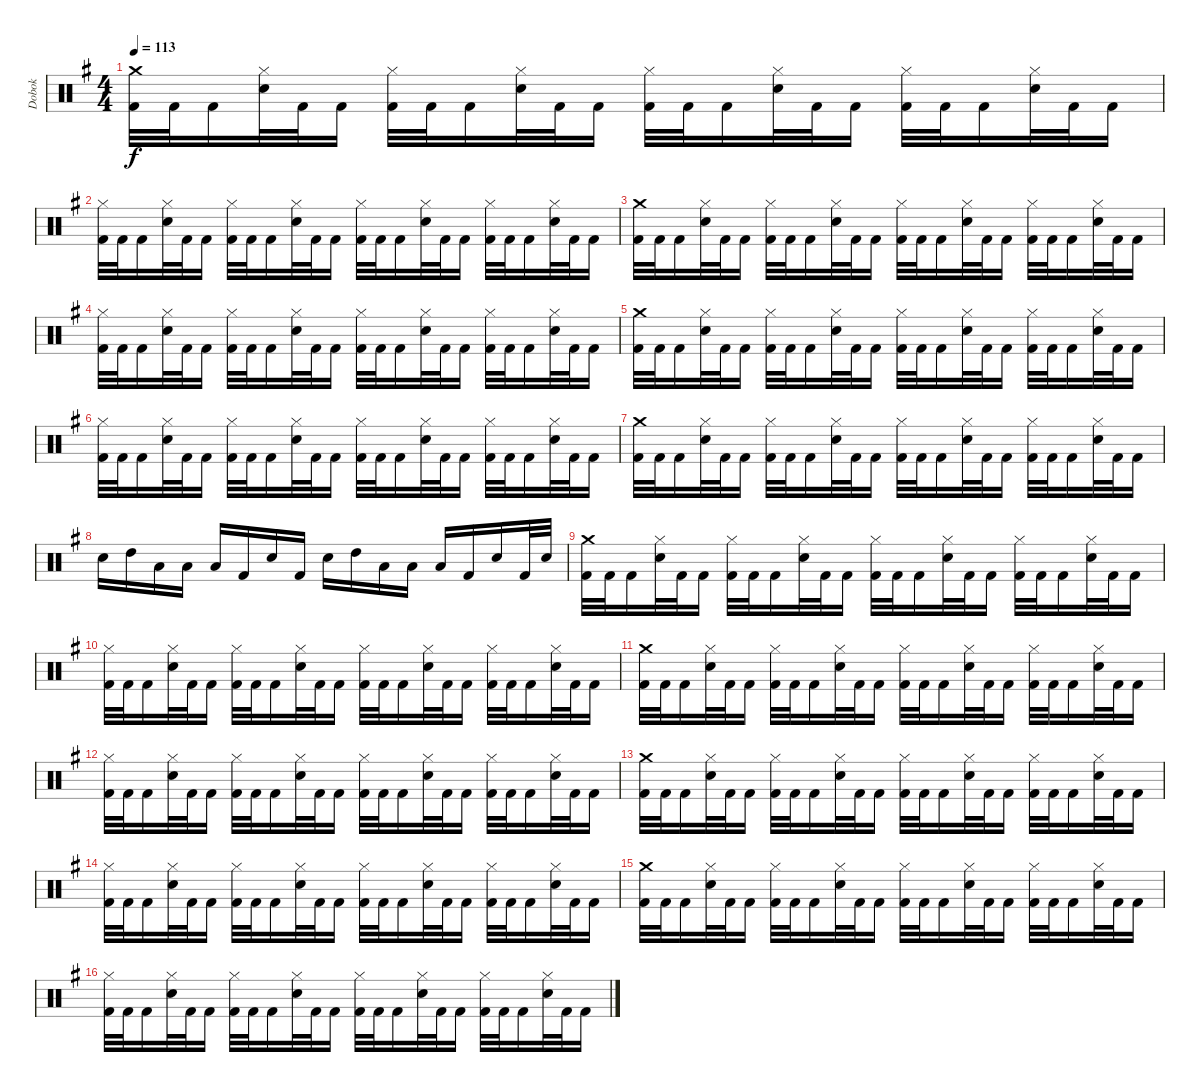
\track ("Dobok" "Dobok") {instrument percussion}
\staff {score}
\articulation defaults
\ts (4 4)
\tempo 113
\clef neutral
\ks g
("Crash medium (hit)" "Kick (hit) 2").32{dy f} "Kick (hit) 2".32 "Kick (hit) 2".16 ("Hi-Hat (closed)" "Snare (hit) 2").32 "Kick (hit) 2".32 "Kick (hit) 2".16 ("Hi-Hat (closed)" "Kick (hit) 2").32 "Kick (hit) 2".32 "Kick (hit) 2".16 ("Hi-Hat (closed)" "Snare (hit) 2").32 "Kick (hit) 2".32 "Kick (hit) 2".16 ("Hi-Hat (closed)" "Kick (hit) 2").32 "Kick (hit) 2".32 "Kick (hit) 2".16 ("Hi-Hat (closed)" "Snare (hit) 2").32 "Kick (hit) 2".32 "Kick (hit) 2".16 ("Hi-Hat (closed)" "Kick (hit) 2").32 "Kick (hit) 2".32 "Kick (hit) 2".16 ("Hi-Hat (closed)" "Snare (hit) 2").32 "Kick (hit) 2".32 "Kick (hit) 2".16 |
("Hi-Hat (closed)" "Kick (hit) 2").32 "Kick (hit) 2".32 "Kick (hit) 2".16 ("Hi-Hat (closed)" "Snare (hit) 2").32 "Kick (hit) 2".32 "Kick (hit) 2".16 ("Hi-Hat (closed)" "Kick (hit) 2").32 "Kick (hit) 2".32 "Kick (hit) 2".16 ("Hi-Hat (closed)" "Snare (hit) 2").32 "Kick (hit) 2".32 "Kick (hit) 2".16 ("Hi-Hat (closed)" "Kick (hit) 2").32 "Kick (hit) 2".32 "Kick (hit) 2".16 ("Hi-Hat (closed)" "Snare (hit) 2").32 "Kick (hit) 2".32 "Kick (hit) 2".16 ("Hi-Hat (closed)" "Kick (hit) 2").32 "Kick (hit) 2".32 "Kick (hit) 2".16 ("Hi-Hat (closed)" "Snare (hit) 2").32 "Kick (hit) 2".32 "Kick (hit) 2".16 |
("Crash medium (hit)" "Kick (hit) 2").32 "Kick (hit) 2".32 "Kick (hit) 2".16 ("Hi-Hat (closed)" "Snare (hit) 2").32 "Kick (hit) 2".32 "Kick (hit) 2".16 ("Hi-Hat (closed)" "Kick (hit) 2").32 "Kick (hit) 2".32 "Kick (hit) 2".16 ("Hi-Hat (closed)" "Snare (hit) 2").32 "Kick (hit) 2".32 "Kick (hit) 2".16 ("Hi-Hat (closed)" "Kick (hit) 2").32 "Kick (hit) 2".32 "Kick (hit) 2".16 ("Hi-Hat (closed)" "Snare (hit) 2").32 "Kick (hit) 2".32 "Kick (hit) 2".16 ("Hi-Hat (closed)" "Kick (hit) 2").32 "Kick (hit) 2".32 "Kick (hit) 2".16 ("Hi-Hat (closed)" "Snare (hit) 2").32 "Kick (hit) 2".32 "Kick (hit) 2".16 |
("Hi-Hat (closed)" "Kick (hit) 2").32 "Kick (hit) 2".32 "Kick (hit) 2".16 ("Hi-Hat (closed)" "Snare (hit) 2").32 "Kick (hit) 2".32 "Kick (hit) 2".16 ("Hi-Hat (closed)" "Kick (hit) 2").32 "Kick (hit) 2".32 "Kick (hit) 2".16 ("Hi-Hat (closed)" "Snare (hit) 2").32 "Kick (hit) 2".32 "Kick (hit) 2".16 ("Hi-Hat (closed)" "Kick (hit) 2").32 "Kick (hit) 2".32 "Kick (hit) 2".16 ("Hi-Hat (closed)" "Snare (hit) 2").32 "Kick (hit) 2".32 "Kick (hit) 2".16 ("Hi-Hat (closed)" "Kick (hit) 2").32 "Kick (hit) 2".32 "Kick (hit) 2".16 ("Hi-Hat (closed)" "Snare (hit) 2").32 "Kick (hit) 2".32 "Kick (hit) 2".16 |
("Crash medium (hit)" "Kick (hit) 2").32 "Kick (hit) 2".32 "Kick (hit) 2".16 ("Hi-Hat (closed)" "Snare (hit) 2").32 "Kick (hit) 2".32 "Kick (hit) 2".16 ("Hi-Hat (closed)" "Kick (hit) 2").32 "Kick (hit) 2".32 "Kick (hit) 2".16 ("Hi-Hat (closed)" "Snare (hit) 2").32 "Kick (hit) 2".32 "Kick (hit) 2".16 ("Hi-Hat (closed)" "Kick (hit) 2").32 "Kick (hit) 2".32 "Kick (hit) 2".16 ("Hi-Hat (closed)" "Snare (hit) 2").32 "Kick (hit) 2".32 "Kick (hit) 2".16 ("Hi-Hat (closed)" "Kick (hit) 2").32 "Kick (hit) 2".32 "Kick (hit) 2".16 ("Hi-Hat (closed)" "Snare (hit) 2").32 "Kick (hit) 2".32 "Kick (hit) 2".16 |
("Hi-Hat (closed)" "Kick (hit) 2").32 "Kick (hit) 2".32 "Kick (hit) 2".16 ("Hi-Hat (closed)" "Snare (hit) 2").32 "Kick (hit) 2".32 "Kick (hit) 2".16 ("Hi-Hat (closed)" "Kick (hit) 2").32 "Kick (hit) 2".32 "Kick (hit) 2".16 ("Hi-Hat (closed)" "Snare (hit) 2").32 "Kick (hit) 2".32 "Kick (hit) 2".16 ("Hi-Hat (closed)" "Kick (hit) 2").32 "Kick (hit) 2".32 "Kick (hit) 2".16 ("Hi-Hat (closed)" "Snare (hit) 2").32 "Kick (hit) 2".32 "Kick (hit) 2".16 ("Hi-Hat (closed)" "Kick (hit) 2").32 "Kick (hit) 2".32 "Kick (hit) 2".16 ("Hi-Hat (closed)" "Snare (hit) 2").32 "Kick (hit) 2".32 "Kick (hit) 2".16 |
("Crash medium (hit)" "Kick (hit) 2").32 "Kick (hit) 2".32 "Kick (hit) 2".16 ("Hi-Hat (closed)" "Snare (hit) 2").32 "Kick (hit) 2".32 "Kick (hit) 2".16 ("Hi-Hat (closed)" "Kick (hit) 2").32 "Kick (hit) 2".32 "Kick (hit) 2".16 ("Hi-Hat (closed)" "Snare (hit) 2").32 "Kick (hit) 2".32 "Kick (hit) 2".16 ("Hi-Hat (closed)" "Kick (hit) 2").32 "Kick (hit) 2".32 "Kick (hit) 2".16 ("Hi-Hat (closed)" "Snare (hit) 2").32 "Kick (hit) 2".32 "Kick (hit) 2".16 ("Hi-Hat (closed)" "Kick (hit) 2").32 "Kick (hit) 2".32 "Kick (hit) 2".16 ("Hi-Hat (closed)" "Snare (hit) 2").32 "Kick (hit) 2".32 "Kick (hit) 2".16 |
"Snare (hit) 2".16 "High Tom (hit)".16 "Low Tom (hit)".16 "Low Floor Tom (hit)".16 "Low Floor Tom (hit)".16 "Kick (hit) 2".16 "Snare (hit) 2".16 "Kick (hit) 2".16 "Snare (hit) 2".16 "High Tom (hit)".16 "Low Tom (hit)".16 "Low Floor Tom (hit)".16 "Low Floor Tom (hit)".16 "Kick (hit) 2".16 "Snare (hit) 2".16 "Kick (hit) 2".32 "Snare (hit) 2".32 |
("Crash medium (hit)" "Kick (hit) 2").32 "Kick (hit) 2".32 "Kick (hit) 2".16 ("Hi-Hat (closed)" "Snare (hit) 2").32 "Kick (hit) 2".32 "Kick (hit) 2".16 ("Hi-Hat (closed)" "Kick (hit) 2").32 "Kick (hit) 2".32 "Kick (hit) 2".16 ("Hi-Hat (closed)" "Snare (hit) 2").32 "Kick (hit) 2".32 "Kick (hit) 2".16 ("Hi-Hat (closed)" "Kick (hit) 2").32 "Kick (hit) 2".32 "Kick (hit) 2".16 ("Hi-Hat (closed)" "Snare (hit) 2").32 "Kick (hit) 2".32 "Kick (hit) 2".16 ("Hi-Hat (closed)" "Kick (hit) 2").32 "Kick (hit) 2".32 "Kick (hit) 2".16 ("Hi-Hat (closed)" "Snare (hit) 2").32 "Kick (hit) 2".32 "Kick (hit) 2".16 |
("Hi-Hat (closed)" "Kick (hit) 2").32 "Kick (hit) 2".32 "Kick (hit) 2".16 ("Hi-Hat (closed)" "Snare (hit) 2").32 "Kick (hit) 2".32 "Kick (hit) 2".16 ("Hi-Hat (closed)" "Kick (hit) 2").32 "Kick (hit) 2".32 "Kick (hit) 2".16 ("Hi-Hat (closed)" "Snare (hit) 2").32 "Kick (hit) 2".32 "Kick (hit) 2".16 ("Hi-Hat (closed)" "Kick (hit) 2").32 "Kick (hit) 2".32 "Kick (hit) 2".16 ("Hi-Hat (closed)" "Snare (hit) 2").32 "Kick (hit) 2".32 "Kick (hit) 2".16 ("Hi-Hat (closed)" "Kick (hit) 2").32 "Kick (hit) 2".32 "Kick (hit) 2".16 ("Hi-Hat (closed)" "Snare (hit) 2").32 "Kick (hit) 2".32 "Kick (hit) 2".16 |
("Crash medium (hit)" "Kick (hit) 2").32 "Kick (hit) 2".32 "Kick (hit) 2".16 ("Hi-Hat (closed)" "Snare (hit) 2").32 "Kick (hit) 2".32 "Kick (hit) 2".16 ("Hi-Hat (closed)" "Kick (hit) 2").32 "Kick (hit) 2".32 "Kick (hit) 2".16 ("Hi-Hat (closed)" "Snare (hit) 2").32 "Kick (hit) 2".32 "Kick (hit) 2".16 ("Hi-Hat (closed)" "Kick (hit) 2").32 "Kick (hit) 2".32 "Kick (hit) 2".16 ("Hi-Hat (closed)" "Snare (hit) 2").32 "Kick (hit) 2".32 "Kick (hit) 2".16 ("Hi-Hat (closed)" "Kick (hit) 2").32 "Kick (hit) 2".32 "Kick (hit) 2".16 ("Hi-Hat (closed)" "Snare (hit) 2").32 "Kick (hit) 2".32 "Kick (hit) 2".16 |
("Hi-Hat (closed)" "Kick (hit) 2").32 "Kick (hit) 2".32 "Kick (hit) 2".16 ("Hi-Hat (closed)" "Snare (hit) 2").32 "Kick (hit) 2".32 "Kick (hit) 2".16 ("Hi-Hat (closed)" "Kick (hit) 2").32 "Kick (hit) 2".32 "Kick (hit) 2".16 ("Hi-Hat (closed)" "Snare (hit) 2").32 "Kick (hit) 2".32 "Kick (hit) 2".16 ("Hi-Hat (closed)" "Kick (hit) 2").32 "Kick (hit) 2".32 "Kick (hit) 2".16 ("Hi-Hat (closed)" "Snare (hit) 2").32 "Kick (hit) 2".32 "Kick (hit) 2".16 ("Hi-Hat (closed)" "Kick (hit) 2").32 "Kick (hit) 2".32 "Kick (hit) 2".16 ("Hi-Hat (closed)" "Snare (hit) 2").32 "Kick (hit) 2".32 "Kick (hit) 2".16 |
("Crash medium (hit)" "Kick (hit) 2").32 "Kick (hit) 2".32 "Kick (hit) 2".16 ("Hi-Hat (closed)" "Snare (hit) 2").32 "Kick (hit) 2".32 "Kick (hit) 2".16 ("Hi-Hat (closed)" "Kick (hit) 2").32 "Kick (hit) 2".32 "Kick (hit) 2".16 ("Hi-Hat (closed)" "Snare (hit) 2").32 "Kick (hit) 2".32 "Kick (hit) 2".16 ("Hi-Hat (closed)" "Kick (hit) 2").32 "Kick (hit) 2".32 "Kick (hit) 2".16 ("Hi-Hat (closed)" "Snare (hit) 2").32 "Kick (hit) 2".32 "Kick (hit) 2".16 ("Hi-Hat (closed)" "Kick (hit) 2").32 "Kick (hit) 2".32 "Kick (hit) 2".16 ("Hi-Hat (closed)" "Snare (hit) 2").32 "Kick (hit) 2".32 "Kick (hit) 2".16 |
("Hi-Hat (closed)" "Kick (hit) 2").32 "Kick (hit) 2".32 "Kick (hit) 2".16 ("Hi-Hat (closed)" "Snare (hit) 2").32 "Kick (hit) 2".32 "Kick (hit) 2".16 ("Hi-Hat (closed)" "Kick (hit) 2").32 "Kick (hit) 2".32 "Kick (hit) 2".16 ("Hi-Hat (closed)" "Snare (hit) 2").32 "Kick (hit) 2".32 "Kick (hit) 2".16 ("Hi-Hat (closed)" "Kick (hit) 2").32 "Kick (hit) 2".32 "Kick (hit) 2".16 ("Hi-Hat (closed)" "Snare (hit) 2").32 "Kick (hit) 2".32 "Kick (hit) 2".16 ("Hi-Hat (closed)" "Kick (hit) 2").32 "Kick (hit) 2".32 "Kick (hit) 2".16 ("Hi-Hat (closed)" "Snare (hit) 2").32 "Kick (hit) 2".32 "Kick (hit) 2".16 |
("Crash medium (hit)" "Kick (hit) 2").32 "Kick (hit) 2".32 "Kick (hit) 2".16 ("Hi-Hat (closed)" "Snare (hit) 2").32 "Kick (hit) 2".32 "Kick (hit) 2".16 ("Hi-Hat (closed)" "Kick (hit) 2").32 "Kick (hit) 2".32 "Kick (hit) 2".16 ("Hi-Hat (closed)" "Snare (hit) 2").32 "Kick (hit) 2".32 "Kick (hit) 2".16 ("Hi-Hat (closed)" "Kick (hit) 2").32 "Kick (hit) 2".32 "Kick (hit) 2".16 ("Hi-Hat (closed)" "Snare (hit) 2").32 "Kick (hit) 2".32 "Kick (hit) 2".16 ("Hi-Hat (closed)" "Kick (hit) 2").32 "Kick (hit) 2".32 "Kick (hit) 2".16 ("Hi-Hat (closed)" "Snare (hit) 2").32 "Kick (hit) 2".32 "Kick (hit) 2".16 |
("Hi-Hat (closed)" "Kick (hit) 2").32 "Kick (hit) 2".32 "Kick (hit) 2".16 ("Hi-Hat (closed)" "Snare (hit) 2").32 "Kick (hit) 2".32 "Kick (hit) 2".16 ("Hi-Hat (closed)" "Kick (hit) 2").32 "Kick (hit) 2".32 "Kick (hit) 2".16 ("Hi-Hat (closed)" "Snare (hit) 2").32 "Kick (hit) 2".32 "Kick (hit) 2".16 ("Hi-Hat (closed)" "Kick (hit) 2").32 "Kick (hit) 2".32 "Kick (hit) 2".16 ("Hi-Hat (closed)" "Snare (hit) 2").32 "Kick (hit) 2".32 "Kick (hit) 2".16 ("Hi-Hat (closed)" "Kick (hit) 2").32 "Kick (hit) 2".32 "Kick (hit) 2".16 ("Hi-Hat (closed)" "Snare (hit) 2").32 "Kick (hit) 2".32 "Kick (hit) 2".16
